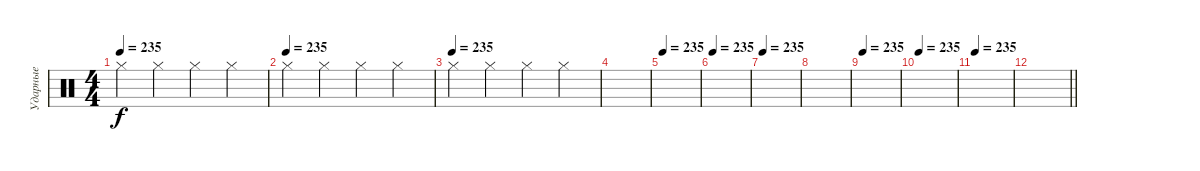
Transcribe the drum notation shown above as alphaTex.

\track ("Ударные" "Ударные") {instrument percussion}
\staff {score}
\articulation defaults
\ts (4 4)
\tempo 235
\clef neutral
\ks c "Hi-Hat (closed)".4{dy f} "Hi-Hat (closed)".4 "Hi-Hat (closed)".4 "Hi-Hat (closed)".4
|
\tempo (235)
"Hi-Hat (closed)".4 "Hi-Hat (closed)".4 "Hi-Hat (closed)".4 "Hi-Hat (closed)".4 |
\tempo (235)
"Hi-Hat (closed)".4 "Hi-Hat (closed)".4 "Hi-Hat (closed)".4 "Hi-Hat (closed)".4 |
|
\tempo 235
|
\tempo 235
|
\tempo 235
|
|
\tempo 235
|
\tempo 235
|
\tempo 235
|
\barLineRight lightlight
